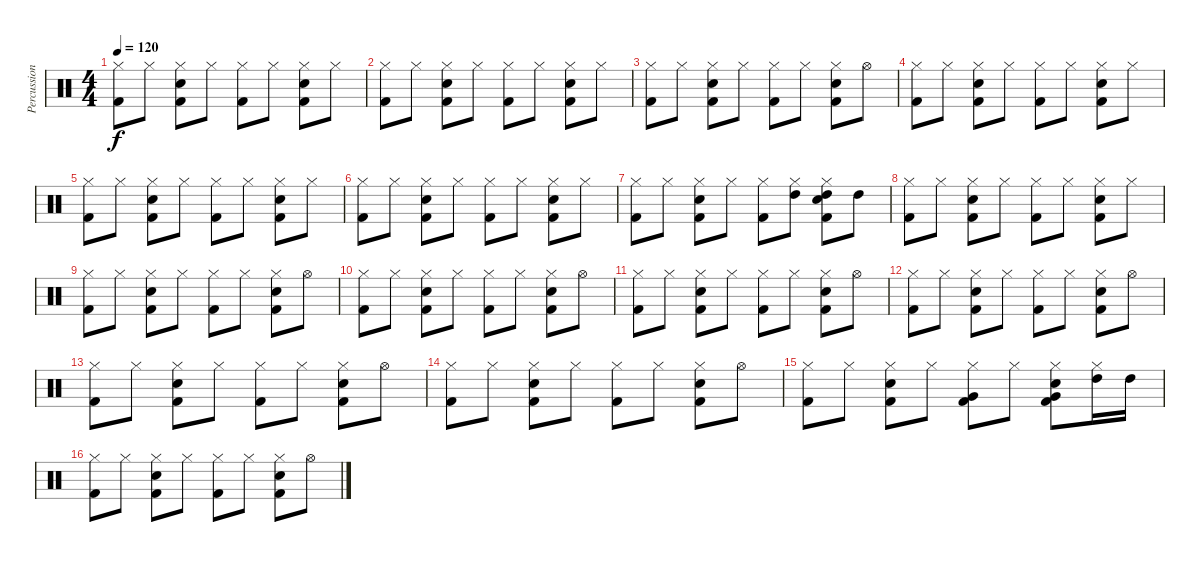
\track ("Percussion" "Percussion") {instrument percussion}
\staff {score}
\articulation defaults
\ts (4 4)
\tempo 120
\clef neutral
\ks c
("Hi-Hat (closed)" "Kick (hit) 2").8{dy f} "Hi-Hat (closed)".8 ("Hi-Hat (closed)" "Kick (hit) 2" "Snare (hit) 2").8 "Hi-Hat (closed)".8 ("Hi-Hat (closed)" "Kick (hit) 2").8 "Hi-Hat (closed)".8 ("Hi-Hat (closed)" "Kick (hit) 2" "Snare (hit) 2").8 "Hi-Hat (closed)".8 |
("Hi-Hat (closed)" "Kick (hit) 2").8 "Hi-Hat (closed)".8 ("Hi-Hat (closed)" "Kick (hit) 2" "Snare (hit) 2").8 "Hi-Hat (closed)".8 ("Hi-Hat (closed)" "Kick (hit) 2").8 "Hi-Hat (closed)".8 ("Hi-Hat (closed)" "Kick (hit) 2" "Snare (hit) 2").8 "Hi-Hat (closed)".8 |
("Hi-Hat (closed)" "Kick (hit) 2").8 "Hi-Hat (closed)".8 ("Hi-Hat (closed)" "Kick (hit) 2" "Snare (hit) 2").8 "Hi-Hat (closed)".8 ("Hi-Hat (closed)" "Kick (hit) 2").8 "Hi-Hat (closed)".8 ("Hi-Hat (closed)" "Kick (hit) 2" "Snare (hit) 2").8 "Hi-Hat (open)".8 |
("Hi-Hat (closed)" "Kick (hit) 2").8 "Hi-Hat (closed)".8 ("Hi-Hat (closed)" "Kick (hit) 2" "Snare (hit) 2").8 "Hi-Hat (closed)".8 ("Hi-Hat (closed)" "Kick (hit) 2").8 "Hi-Hat (closed)".8 ("Hi-Hat (closed)" "Kick (hit) 2" "Snare (hit) 2").8 "Hi-Hat (closed)".8 |
("Hi-Hat (closed)" "Kick (hit) 2").8 "Hi-Hat (closed)".8 ("Hi-Hat (closed)" "Kick (hit) 2" "Snare (hit) 2").8 "Hi-Hat (closed)".8 ("Hi-Hat (closed)" "Kick (hit) 2").8 "Hi-Hat (closed)".8 ("Hi-Hat (closed)" "Kick (hit) 2" "Snare (hit) 2").8 "Hi-Hat (closed)".8 |
("Hi-Hat (closed)" "Kick (hit) 2").8 "Hi-Hat (closed)".8 ("Hi-Hat (closed)" "Kick (hit) 2" "Snare (hit) 2").8 "Hi-Hat (closed)".8 ("Hi-Hat (closed)" "Kick (hit) 2").8 "Hi-Hat (closed)".8 ("Hi-Hat (closed)" "Kick (hit) 2" "Snare (hit) 2").8 "Hi-Hat (closed)".8 |
("Hi-Hat (closed)" "Kick (hit) 2").8 "Hi-Hat (closed)".8 ("Hi-Hat (closed)" "Kick (hit) 2" "Snare (hit) 2").8 "Hi-Hat (closed)".8 ("Hi-Hat (closed)" "Kick (hit) 2").8 ("Hi-Hat (closed)" "High Tom (hit)").8 ("Hi-Hat (closed)" "Kick (hit) 2" "Snare (hit) 2" "High Tom (hit)").8 "High Tom (hit)".8 |
("Hi-Hat (closed)" "Kick (hit) 2").8 "Hi-Hat (closed)".8 ("Hi-Hat (closed)" "Kick (hit) 2" "Snare (hit) 2").8 "Hi-Hat (closed)".8 ("Hi-Hat (closed)" "Kick (hit) 2").8 "Hi-Hat (closed)".8 ("Hi-Hat (closed)" "Kick (hit) 2" "Snare (hit) 2").8 "Hi-Hat (closed)".8 |
("Hi-Hat (closed)" "Kick (hit) 2").8 "Hi-Hat (closed)".8 ("Hi-Hat (closed)" "Kick (hit) 2" "Snare (hit) 2").8 "Hi-Hat (closed)".8 ("Hi-Hat (closed)" "Kick (hit) 2").8 "Hi-Hat (closed)".8 ("Hi-Hat (closed)" "Kick (hit) 2" "Snare (hit) 2").8 "Hi-Hat (open)".8 |
("Hi-Hat (closed)" "Kick (hit) 2").8 "Hi-Hat (closed)".8 ("Hi-Hat (closed)" "Kick (hit) 2" "Snare (hit) 2").8 "Hi-Hat (closed)".8 ("Hi-Hat (closed)" "Kick (hit) 2").8 "Hi-Hat (closed)".8 ("Hi-Hat (closed)" "Kick (hit) 2" "Snare (hit) 2").8 "Hi-Hat (open)".8 |
("Hi-Hat (closed)" "Kick (hit) 2").8 "Hi-Hat (closed)".8 ("Hi-Hat (closed)" "Kick (hit) 2" "Snare (hit) 2").8 "Hi-Hat (closed)".8 ("Hi-Hat (closed)" "Kick (hit) 2").8 "Hi-Hat (closed)".8 ("Hi-Hat (closed)" "Kick (hit) 2" "Snare (hit) 2").8 "Hi-Hat (open)".8 |
("Hi-Hat (closed)" "Kick (hit) 2").8 "Hi-Hat (closed)".8 ("Hi-Hat (closed)" "Kick (hit) 2" "Snare (hit) 2").8 "Hi-Hat (closed)".8 ("Hi-Hat (closed)" "Kick (hit) 2").8 "Hi-Hat (closed)".8 ("Hi-Hat (closed)" "Kick (hit) 2" "Snare (hit) 2").8 "Hi-Hat (open)".8 |
("Hi-Hat (closed)" "Kick (hit) 2").8 "Hi-Hat (closed)".8 ("Hi-Hat (closed)" "Kick (hit) 2" "Snare (hit) 2").8 "Hi-Hat (closed)".8 ("Hi-Hat (closed)" "Kick (hit) 2").8 "Hi-Hat (closed)".8 ("Hi-Hat (closed)" "Kick (hit) 2" "Snare (hit) 2").8 "Hi-Hat (open)".8 |
("Hi-Hat (closed)" "Kick (hit) 2").8 "Hi-Hat (closed)".8 ("Hi-Hat (closed)" "Kick (hit) 2" "Snare (hit) 2").8 "Hi-Hat (closed)".8 ("Hi-Hat (closed)" "Kick (hit) 2").8 "Hi-Hat (closed)".8 ("Hi-Hat (closed)" "Kick (hit) 2" "Snare (hit) 2").8 "Hi-Hat (open)".8 |
("Hi-Hat (closed)" "Kick (hit) 2").8 "Hi-Hat (closed)".8 ("Hi-Hat (closed)" "Kick (hit) 2" "Snare (hit) 2").8 "Hi-Hat (closed)".8 ("Hi-Hat (closed)" "Kick (hit) 2" "Very Low Tom (hit)").8 "Hi-Hat (closed)".8 ("Hi-Hat (closed)" "Kick (hit) 2" "Snare (hit) 2" "Very Low Tom (hit)").8 ("Hi-Hat (closed)" "High Tom (hit)").16 "High Tom (hit)".16 |
("Hi-Hat (closed)" "Kick (hit) 2").8 "Hi-Hat (closed)".8 ("Hi-Hat (closed)" "Kick (hit) 2" "Snare (hit) 2").8 "Hi-Hat (closed)".8 ("Hi-Hat (closed)" "Kick (hit) 2").8 "Hi-Hat (closed)".8 ("Hi-Hat (closed)" "Kick (hit) 2" "Snare (hit) 2").8 "Hi-Hat (open)".8
